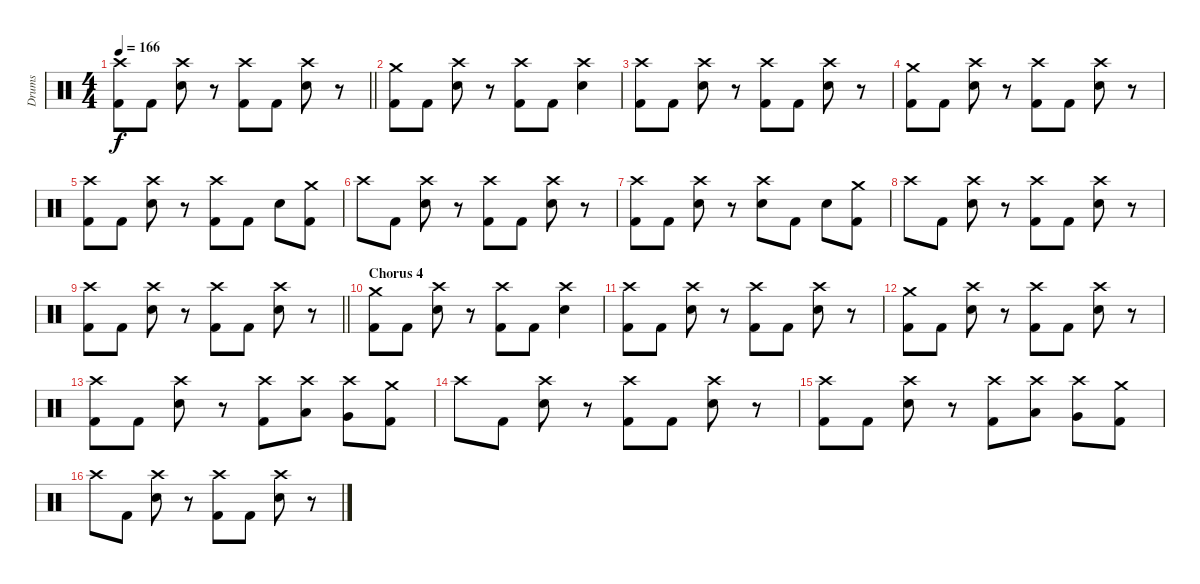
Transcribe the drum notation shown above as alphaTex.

\track ("Drums" "Drums") {instrument percussion}
\staff {score}
\articulation defaults
\ts (4 4)
\tempo 166
\clef neutral
\barLineRight lightlight
\ks c
("Crash high (hit)" "Kick (hit) 2").8{dy f} "Kick (hit) 2".8 ("Crash high (hit)" "Electric Snare (hit)").8 r.8 ("Crash high (hit)" "Kick (hit) 2").8 "Kick (hit) 2".8 ("Crash high (hit)" "Electric Snare (hit)").8 r.8 |
("Crash medium (hit)" "Kick (hit) 2").8 "Kick (hit) 2".8 ("Crash high (hit)" "Electric Snare (hit)").8 r.8 ("Crash high (hit)" "Kick (hit) 2").8 "Kick (hit) 2".8 ("Crash high (hit)" "Electric Snare (hit)").4 |
("Crash high (hit)" "Kick (hit) 2").8 "Kick (hit) 2".8 ("Crash high (hit)" "Electric Snare (hit)").8 r.8 ("Crash high (hit)" "Kick (hit) 2").8 "Kick (hit) 2".8 ("Crash high (hit)" "Electric Snare (hit)").8 r.8 |
("Crash medium (hit)" "Kick (hit) 2").8 "Kick (hit) 2".8 ("Crash high (hit)" "Electric Snare (hit)").8 r.8 ("Crash high (hit)" "Kick (hit) 2").8 "Kick (hit) 2".8 ("Crash high (hit)" "Electric Snare (hit)").8 r.8 |
("Crash high (hit)" "Kick (hit) 2").8 "Kick (hit) 2".8 ("Crash high (hit)" "Electric Snare (hit)").8 r.8 ("Crash high (hit)" "Kick (hit) 2").8 "Kick (hit) 2".8 "Electric Snare (hit)".8 ("Crash medium (hit)" "Kick (hit) 2").8 |
"Crash high (hit)".8 "Kick (hit) 2".8 ("Crash high (hit)" "Electric Snare (hit)").8 r.8 ("Crash high (hit)" "Kick (hit) 2").8 "Kick (hit) 2".8 ("Crash high (hit)" "Electric Snare (hit)").8 r.8 |
("Crash high (hit)" "Kick (hit) 2").8 "Kick (hit) 2".8 ("Crash high (hit)" "Electric Snare (hit)").8 r.8 ("Crash high (hit)" "Electric Snare (hit)").8 "Kick (hit) 2".8 "Electric Snare (hit)".8 ("Crash medium (hit)" "Kick (hit) 2").8 |
"Crash high (hit)".8 "Kick (hit) 2".8 ("Crash high (hit)" "Electric Snare (hit)").8 r.8 ("Crash high (hit)" "Kick (hit) 2").8 "Kick (hit) 2".8 ("Crash high (hit)" "Electric Snare (hit)").8 r.8 |
\barLineRight lightlight
("Crash high (hit)" "Kick (hit) 2").8 "Kick (hit) 2".8 ("Crash high (hit)" "Electric Snare (hit)").8 r.8 ("Crash high (hit)" "Kick (hit) 2").8 "Kick (hit) 2".8 ("Crash high (hit)" "Electric Snare (hit)").8 r.8 |
\section ("" "Chorus 4")
("Crash medium (hit)" "Kick (hit) 2").8 "Kick (hit) 2".8 ("Crash high (hit)" "Electric Snare (hit)").8 r.8 ("Crash high (hit)" "Kick (hit) 2").8 "Kick (hit) 2".8 ("Crash high (hit)" "Electric Snare (hit)").4 |
("Crash high (hit)" "Kick (hit) 2").8 "Kick (hit) 2".8 ("Crash high (hit)" "Electric Snare (hit)").8 r.8 ("Crash high (hit)" "Kick (hit) 2").8 "Kick (hit) 2".8 ("Crash high (hit)" "Electric Snare (hit)").8 r.8 |
("Crash medium (hit)" "Kick (hit) 2").8 "Kick (hit) 2".8 ("Crash high (hit)" "Electric Snare (hit)").8 r.8 ("Crash high (hit)" "Kick (hit) 2").8 "Kick (hit) 2".8 ("Crash high (hit)" "Electric Snare (hit)").8 r.8 |
("Crash high (hit)" "Kick (hit) 2").8 "Kick (hit) 2".8 ("Crash high (hit)" "Electric Snare (hit)").8 r.8 ("Crash high (hit)" "Kick (hit) 2").8 ("Crash high (hit)" "Low Tom (hit)").8 ("Crash high (hit)" "Very Low Tom (hit)").8 ("Crash medium (hit)" "Kick (hit) 2").8 |
"Crash high (hit)".8 "Kick (hit) 2".8 ("Crash high (hit)" "Electric Snare (hit)").8 r.8 ("Crash high (hit)" "Kick (hit) 2").8 "Kick (hit) 2".8 ("Crash high (hit)" "Electric Snare (hit)").8 r.8 |
("Crash high (hit)" "Kick (hit) 2").8 "Kick (hit) 2".8 ("Crash high (hit)" "Electric Snare (hit)").8 r.8 ("Crash high (hit)" "Kick (hit) 2").8 ("Crash high (hit)" "Low Tom (hit)").8 ("Crash high (hit)" "Very Low Tom (hit)").8 ("Crash medium (hit)" "Kick (hit) 2").8 |
"Crash high (hit)".8 "Kick (hit) 2".8 ("Crash high (hit)" "Electric Snare (hit)").8 r.8 ("Crash high (hit)" "Kick (hit) 2").8 "Kick (hit) 2".8 ("Crash high (hit)" "Electric Snare (hit)").8 r.8
